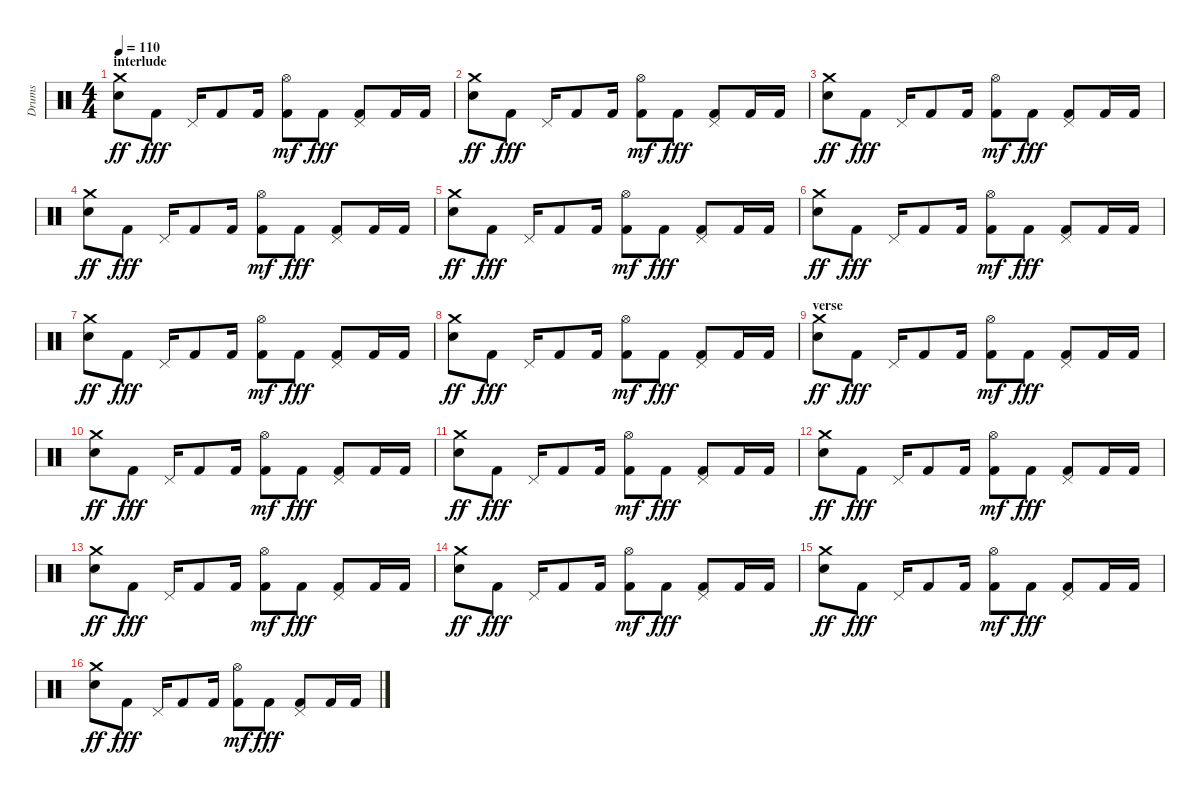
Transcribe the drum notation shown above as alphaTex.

\track ("Drums" "Drums") {instrument percussion}
\staff {score}
\articulation defaults
\ts (4 4)
\section ("" "interlude")
\tempo 110
\clef neutral
\ks c
("Electric Snare (hit)" "Crash medium (hit)").8{dy ff} "Kick (hit) 2".8{dy fff} "Pedal Hi-Hat (hit)".16 "Kick (hit) 2".8 "Kick (hit) 2".16 ("Kick (hit) 2" "Hi-Hat (open)").8{dy mf} "Kick (hit) 2".8{dy fff} ("Kick (hit) 2" "Pedal Hi-Hat (hit)").8 "Kick (hit) 2".16 "Kick (hit) 2".16 |
("Electric Snare (hit)" "Crash medium (hit)").8{dy ff} "Kick (hit) 2".8{dy fff} "Pedal Hi-Hat (hit)".16 "Kick (hit) 2".8 "Kick (hit) 2".16 ("Kick (hit) 2" "Hi-Hat (open)").8{dy mf} "Kick (hit) 2".8{dy fff} ("Kick (hit) 2" "Pedal Hi-Hat (hit)").8 "Kick (hit) 2".16 "Kick (hit) 2".16 |
("Electric Snare (hit)" "Crash medium (hit)").8{dy ff} "Kick (hit) 2".8{dy fff} "Pedal Hi-Hat (hit)".16 "Kick (hit) 2".8 "Kick (hit) 2".16 ("Kick (hit) 2" "Hi-Hat (open)").8{dy mf} "Kick (hit) 2".8{dy fff} ("Kick (hit) 2" "Pedal Hi-Hat (hit)").8 "Kick (hit) 2".16 "Kick (hit) 2".16 |
("Electric Snare (hit)" "Crash medium (hit)").8{dy ff} "Kick (hit) 2".8{dy fff} "Pedal Hi-Hat (hit)".16 "Kick (hit) 2".8 "Kick (hit) 2".16 ("Kick (hit) 2" "Hi-Hat (open)").8{dy mf} "Kick (hit) 2".8{dy fff} ("Kick (hit) 2" "Pedal Hi-Hat (hit)").8 "Kick (hit) 2".16 "Kick (hit) 2".16 |
("Electric Snare (hit)" "Crash medium (hit)").8{dy ff} "Kick (hit) 2".8{dy fff} "Pedal Hi-Hat (hit)".16 "Kick (hit) 2".8 "Kick (hit) 2".16 ("Kick (hit) 2" "Hi-Hat (open)").8{dy mf} "Kick (hit) 2".8{dy fff} ("Kick (hit) 2" "Pedal Hi-Hat (hit)").8 "Kick (hit) 2".16 "Kick (hit) 2".16 |
("Electric Snare (hit)" "Crash medium (hit)").8{dy ff} "Kick (hit) 2".8{dy fff} "Pedal Hi-Hat (hit)".16 "Kick (hit) 2".8 "Kick (hit) 2".16 ("Kick (hit) 2" "Hi-Hat (open)").8{dy mf} "Kick (hit) 2".8{dy fff} ("Kick (hit) 2" "Pedal Hi-Hat (hit)").8 "Kick (hit) 2".16 "Kick (hit) 2".16 |
("Electric Snare (hit)" "Crash medium (hit)").8{dy ff} "Kick (hit) 2".8{dy fff} "Pedal Hi-Hat (hit)".16 "Kick (hit) 2".8 "Kick (hit) 2".16 ("Kick (hit) 2" "Hi-Hat (open)").8{dy mf} "Kick (hit) 2".8{dy fff} ("Kick (hit) 2" "Pedal Hi-Hat (hit)").8 "Kick (hit) 2".16 "Kick (hit) 2".16 |
("Electric Snare (hit)" "Crash medium (hit)").8{dy ff} "Kick (hit) 2".8{dy fff} "Pedal Hi-Hat (hit)".16 "Kick (hit) 2".8 "Kick (hit) 2".16 ("Kick (hit) 2" "Hi-Hat (open)").8{dy mf} "Kick (hit) 2".8{dy fff} ("Kick (hit) 2" "Pedal Hi-Hat (hit)").8 "Kick (hit) 2".16 "Kick (hit) 2".16 |
\section ("" "verse")
("Electric Snare (hit)" "Crash medium (hit)").8{dy ff} "Kick (hit) 2".8{dy fff} "Pedal Hi-Hat (hit)".16 "Kick (hit) 2".8 "Kick (hit) 2".16 ("Kick (hit) 2" "Hi-Hat (open)").8{dy mf} "Kick (hit) 2".8{dy fff} ("Kick (hit) 2" "Pedal Hi-Hat (hit)").8 "Kick (hit) 2".16 "Kick (hit) 2".16 |
("Electric Snare (hit)" "Crash medium (hit)").8{dy ff} "Kick (hit) 2".8{dy fff} "Pedal Hi-Hat (hit)".16 "Kick (hit) 2".8 "Kick (hit) 2".16 ("Kick (hit) 2" "Hi-Hat (open)").8{dy mf} "Kick (hit) 2".8{dy fff} ("Kick (hit) 2" "Pedal Hi-Hat (hit)").8 "Kick (hit) 2".16 "Kick (hit) 2".16 |
("Electric Snare (hit)" "Crash medium (hit)").8{dy ff} "Kick (hit) 2".8{dy fff} "Pedal Hi-Hat (hit)".16 "Kick (hit) 2".8 "Kick (hit) 2".16 ("Kick (hit) 2" "Hi-Hat (open)").8{dy mf} "Kick (hit) 2".8{dy fff} ("Kick (hit) 2" "Pedal Hi-Hat (hit)").8 "Kick (hit) 2".16 "Kick (hit) 2".16 |
("Electric Snare (hit)" "Crash medium (hit)").8{dy ff} "Kick (hit) 2".8{dy fff} "Pedal Hi-Hat (hit)".16 "Kick (hit) 2".8 "Kick (hit) 2".16 ("Kick (hit) 2" "Hi-Hat (open)").8{dy mf} "Kick (hit) 2".8{dy fff} ("Kick (hit) 2" "Pedal Hi-Hat (hit)").8 "Kick (hit) 2".16 "Kick (hit) 2".16 |
("Electric Snare (hit)" "Crash medium (hit)").8{dy ff} "Kick (hit) 2".8{dy fff} "Pedal Hi-Hat (hit)".16 "Kick (hit) 2".8 "Kick (hit) 2".16 ("Kick (hit) 2" "Hi-Hat (open)").8{dy mf} "Kick (hit) 2".8{dy fff} ("Kick (hit) 2" "Pedal Hi-Hat (hit)").8 "Kick (hit) 2".16 "Kick (hit) 2".16 |
("Electric Snare (hit)" "Crash medium (hit)").8{dy ff} "Kick (hit) 2".8{dy fff} "Pedal Hi-Hat (hit)".16 "Kick (hit) 2".8 "Kick (hit) 2".16 ("Kick (hit) 2" "Hi-Hat (open)").8{dy mf} "Kick (hit) 2".8{dy fff} ("Kick (hit) 2" "Pedal Hi-Hat (hit)").8 "Kick (hit) 2".16 "Kick (hit) 2".16 |
("Electric Snare (hit)" "Crash medium (hit)").8{dy ff} "Kick (hit) 2".8{dy fff} "Pedal Hi-Hat (hit)".16 "Kick (hit) 2".8 "Kick (hit) 2".16 ("Kick (hit) 2" "Hi-Hat (open)").8{dy mf} "Kick (hit) 2".8{dy fff} ("Kick (hit) 2" "Pedal Hi-Hat (hit)").8 "Kick (hit) 2".16 "Kick (hit) 2".16 |
("Electric Snare (hit)" "Crash medium (hit)").8{dy ff} "Kick (hit) 2".8{dy fff} "Pedal Hi-Hat (hit)".16 "Kick (hit) 2".8 "Kick (hit) 2".16 ("Kick (hit) 2" "Hi-Hat (open)").8{dy mf} "Kick (hit) 2".8{dy fff} ("Kick (hit) 2" "Pedal Hi-Hat (hit)").8 "Kick (hit) 2".16 "Kick (hit) 2".16
